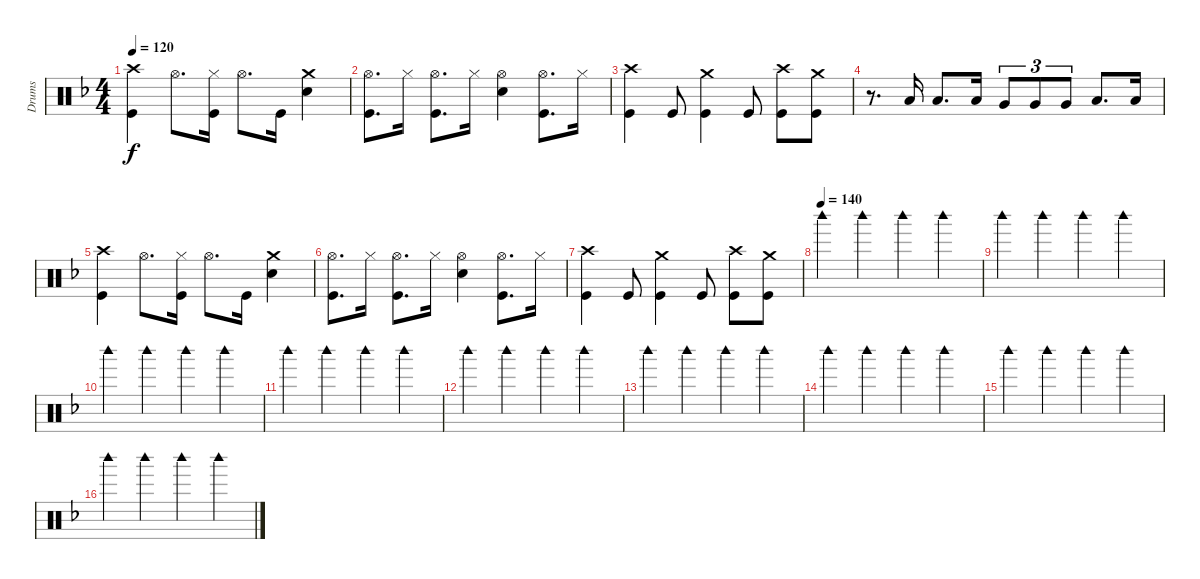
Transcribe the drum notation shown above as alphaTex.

\track ("Drums" "Drums") {instrument percussion}
\staff {score}
\articulation defaults
\ts (4 4)
\tempo 120
\clef neutral
\ks f
("Crash high (hit)" "Kick (hit)").4{dy f} "Hi-Hat (open)".8{d} ("Hi-Hat (closed)" "Kick (hit)").16 "Hi-Hat (open)".8{d} "Kick (hit)".16 ("Crash medium (hit)" "Snare (hit) 2").4 |
("Hi-Hat (open)" "Kick (hit)").8{d} "Hi-Hat (closed)".16 ("Hi-Hat (open)" "Kick (hit)").8{d} "Hi-Hat (closed)".16 ("Hi-Hat (open)" "Snare (hit) 2").4 ("Hi-Hat (open)" "Kick (hit)").8{d} "Hi-Hat (closed)".16 |
("Crash high (hit)" "Kick (hit)").4 "Kick (hit)".8 ("Crash medium (hit)" "Kick (hit)").4 "Kick (hit)".8 ("Crash high (hit)" "Kick (hit)").8 ("Crash medium (hit)" "Kick (hit)").8 |
r.8{d} "Low Floor Tom (hit)".16 "Low Tom (hit)".8{d} "Low Tom (hit)".16 "Very Low Tom (hit)".8{tu (3 2)} "Very Low Tom (hit)".8{tu (3 2)} "Very Low Tom (hit)".8{tu (3 2)} "Low Floor Tom (hit)".8{d} "Low Floor Tom (hit)".16 |
("Crash high (hit)" "Kick (hit)").4 "Hi-Hat (open)".8{d} ("Hi-Hat (closed)" "Kick (hit)").16 "Hi-Hat (open)".8{d} "Kick (hit)".16 ("Crash medium (hit)" "Snare (hit) 2").4 |
("Hi-Hat (open)" "Kick (hit)").8{d} "Hi-Hat (closed)".16 ("Hi-Hat (open)" "Kick (hit)").8{d} "Hi-Hat (closed)".16 ("Hi-Hat (open)" "Snare (hit) 2").4 ("Hi-Hat (open)" "Kick (hit)").8{d} "Hi-Hat (closed)".16 |
("Crash high (hit)" "Kick (hit)").4 "Kick (hit)".8 ("Crash medium (hit)" "Kick (hit)").4 "Kick (hit)".8 ("Crash high (hit)" "Kick (hit)").8 ("Crash medium (hit)" "Kick (hit)").8 |
\tempo (140)
"Woodblock high (hit)".4 "Woodblock high (hit)".4 "Woodblock high (hit)".4 "Woodblock high (hit)".4 |
"Woodblock high (hit)".4 "Woodblock high (hit)".4 "Woodblock high (hit)".4 "Woodblock high (hit)".4 |
"Woodblock high (hit)".4 "Woodblock high (hit)".4 "Woodblock high (hit)".4 "Woodblock high (hit)".4 |
"Woodblock high (hit)".4 "Woodblock high (hit)".4 "Woodblock high (hit)".4 "Woodblock high (hit)".4 |
"Woodblock high (hit)".4 "Woodblock high (hit)".4 "Woodblock high (hit)".4 "Woodblock high (hit)".4 |
"Woodblock high (hit)".4 "Woodblock high (hit)".4 "Woodblock high (hit)".4 "Woodblock high (hit)".4 |
"Woodblock high (hit)".4 "Woodblock high (hit)".4 "Woodblock high (hit)".4 "Woodblock high (hit)".4 |
"Woodblock high (hit)".4 "Woodblock high (hit)".4 "Woodblock high (hit)".4 "Woodblock high (hit)".4 |
"Woodblock high (hit)".4 "Woodblock high (hit)".4 "Woodblock high (hit)".4 "Woodblock high (hit)".4
